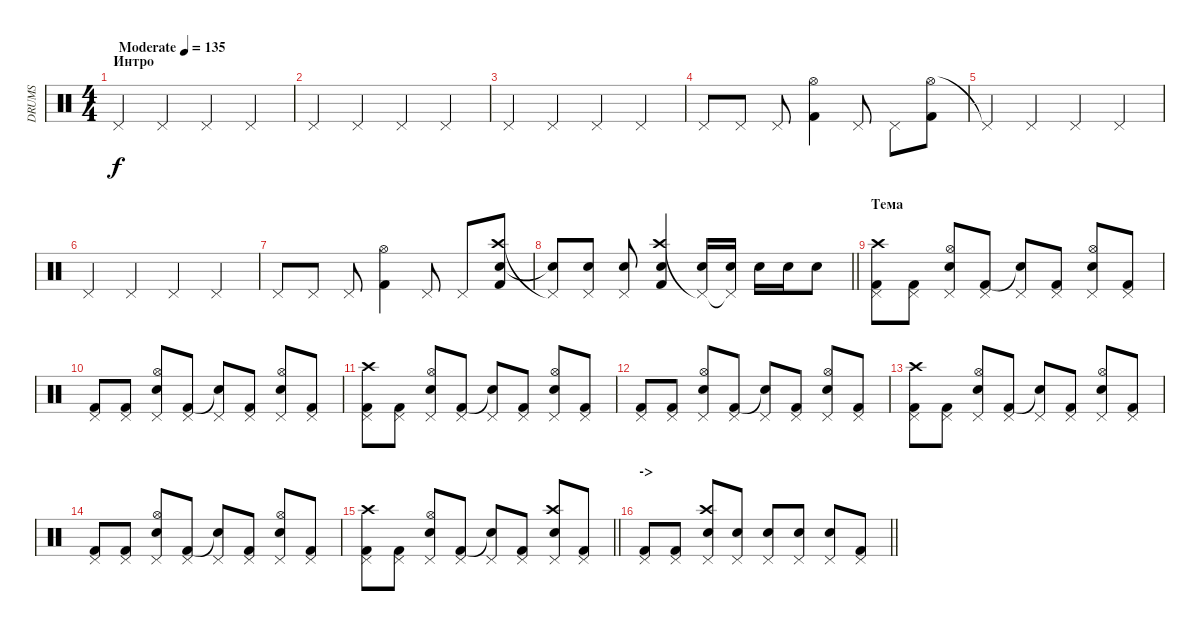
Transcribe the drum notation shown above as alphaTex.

\track ("DRUMS" "DRUMS") {instrument percussion}
\staff {score}
\articulation defaults
\ts (4 4)
\section ("" "Интро")
\tempo (135 "Moderate")
\clef neutral
\ks c "Pedal Hi-Hat (hit)".4{dy f} "Pedal Hi-Hat (hit)".4 "Pedal Hi-Hat (hit)".4 "Pedal Hi-Hat (hit)".4
|
"Pedal Hi-Hat (hit)".4 "Pedal Hi-Hat (hit)".4 "Pedal Hi-Hat (hit)".4 "Pedal Hi-Hat (hit)".4 |
"Pedal Hi-Hat (hit)".4 "Pedal Hi-Hat (hit)".4 "Pedal Hi-Hat (hit)".4 "Pedal Hi-Hat (hit)".4 |
"Pedal Hi-Hat (hit)".8 "Pedal Hi-Hat (hit)".8 "Pedal Hi-Hat (hit)".8 ("Hi-Hat (open)" "Kick (hit) 2").4 "Pedal Hi-Hat (hit)".8 "Pedal Hi-Hat (hit)".8 ("Hi-Hat (open)" "Kick (hit) 2").8 |
"Pedal Hi-Hat (hit)"{t}.4 "Pedal Hi-Hat (hit)".4 "Pedal Hi-Hat (hit)".4 "Pedal Hi-Hat (hit)".4 |
"Pedal Hi-Hat (hit)".4 "Pedal Hi-Hat (hit)".4 "Pedal Hi-Hat (hit)".4 "Pedal Hi-Hat (hit)".4 |
"Pedal Hi-Hat (hit)".8 "Pedal Hi-Hat (hit)".8 "Pedal Hi-Hat (hit)".8 ("Hi-Hat (open)" "Kick (hit) 2").4 "Pedal Hi-Hat (hit)".8 "Pedal Hi-Hat (hit)".8 ("Crash high (hit)" "Snare (hit) 2" "Kick (hit) 2").8 |
\barLineRight lightlight
("Pedal Hi-Hat (hit)"{t} "Snare (hit)"{t}).8 ("Pedal Hi-Hat (hit)" "Snare (hit) 2").8 ("Pedal Hi-Hat (hit)" "Snare (hit) 2").8 ("Crash high (hit)" "Snare (hit) 2" "Kick (hit) 2").4 ("Pedal Hi-Hat (hit)"{t} "Snare (hit) 2").16 ("Pedal Hi-Hat (hit)"{t} "Snare (hit) 2").16 "Snare (hit) 2".16 "Snare (hit) 2".16 "Snare (hit) 2".8 |
\section ("" "Тема")
("Crash high (hit)" "Pedal Hi-Hat (hit)" "Kick (hit) 2").8 ("Pedal Hi-Hat (hit)" "Kick (hit) 2").8 ("Hi-Hat (open)" "Pedal Hi-Hat (hit)" "Snare (hit) 2").8 ("Pedal Hi-Hat (hit)" "Kick (hit) 2").8 ("Pedal Hi-Hat (hit)" "Snare (hit)"{t}).8 ("Pedal Hi-Hat (hit)" "Kick (hit) 2").8 ("Hi-Hat (open)" "Pedal Hi-Hat (hit)" "Snare (hit) 2").8 ("Pedal Hi-Hat (hit)" "Kick (hit) 2").8 |
("Pedal Hi-Hat (hit)" "Kick (hit) 2").8 ("Pedal Hi-Hat (hit)" "Kick (hit) 2").8 ("Hi-Hat (open)" "Pedal Hi-Hat (hit)" "Snare (hit) 2").8 ("Pedal Hi-Hat (hit)" "Kick (hit) 2").8 ("Pedal Hi-Hat (hit)" "Snare (hit)"{t}).8 ("Pedal Hi-Hat (hit)" "Kick (hit) 2").8 ("Hi-Hat (open)" "Pedal Hi-Hat (hit)" "Snare (hit) 2").8 ("Pedal Hi-Hat (hit)" "Kick (hit) 2").8 |
("Crash high (hit)" "Pedal Hi-Hat (hit)" "Kick (hit) 2").8 ("Pedal Hi-Hat (hit)" "Kick (hit) 2").8 ("Hi-Hat (open)" "Pedal Hi-Hat (hit)" "Snare (hit) 2").8 ("Pedal Hi-Hat (hit)" "Kick (hit) 2").8 ("Pedal Hi-Hat (hit)" "Snare (hit)"{t}).8 ("Pedal Hi-Hat (hit)" "Kick (hit) 2").8 ("Hi-Hat (open)" "Pedal Hi-Hat (hit)" "Snare (hit) 2").8 ("Pedal Hi-Hat (hit)" "Kick (hit) 2").8 |
("Pedal Hi-Hat (hit)" "Kick (hit) 2").8 ("Pedal Hi-Hat (hit)" "Kick (hit) 2").8 ("Hi-Hat (open)" "Pedal Hi-Hat (hit)" "Snare (hit) 2").8 ("Pedal Hi-Hat (hit)" "Kick (hit) 2").8 ("Pedal Hi-Hat (hit)" "Snare (hit)"{t}).8 ("Pedal Hi-Hat (hit)" "Kick (hit) 2").8 ("Hi-Hat (open)" "Pedal Hi-Hat (hit)" "Snare (hit) 2").8 ("Pedal Hi-Hat (hit)" "Kick (hit) 2").8 |
("Crash high (hit)" "Pedal Hi-Hat (hit)" "Kick (hit) 2").8 ("Pedal Hi-Hat (hit)" "Kick (hit) 2").8 ("Hi-Hat (open)" "Pedal Hi-Hat (hit)" "Snare (hit) 2").8 ("Pedal Hi-Hat (hit)" "Kick (hit) 2").8 ("Pedal Hi-Hat (hit)" "Snare (hit)"{t}).8 ("Pedal Hi-Hat (hit)" "Kick (hit) 2").8 ("Hi-Hat (open)" "Pedal Hi-Hat (hit)" "Snare (hit) 2").8 ("Pedal Hi-Hat (hit)" "Kick (hit) 2").8 |
("Pedal Hi-Hat (hit)" "Kick (hit) 2").8 ("Pedal Hi-Hat (hit)" "Kick (hit) 2").8 ("Hi-Hat (open)" "Pedal Hi-Hat (hit)" "Snare (hit) 2").8 ("Pedal Hi-Hat (hit)" "Kick (hit) 2").8 ("Pedal Hi-Hat (hit)" "Snare (hit)"{t}).8 ("Pedal Hi-Hat (hit)" "Kick (hit) 2").8 ("Hi-Hat (open)" "Pedal Hi-Hat (hit)" "Snare (hit) 2").8 ("Pedal Hi-Hat (hit)" "Kick (hit) 2").8 |
\barLineRight lightlight
("Crash high (hit)" "Pedal Hi-Hat (hit)" "Kick (hit) 2").8 ("Pedal Hi-Hat (hit)" "Kick (hit) 2").8 ("Hi-Hat (open)" "Pedal Hi-Hat (hit)" "Snare (hit) 2").8 ("Pedal Hi-Hat (hit)" "Kick (hit) 2").8 ("Pedal Hi-Hat (hit)" "Snare (hit)"{t}).8 ("Pedal Hi-Hat (hit)" "Kick (hit) 2").8 ("Crash high (hit)" "Pedal Hi-Hat (hit)" "Snare (hit) 2").8 ("Pedal Hi-Hat (hit)" "Kick (hit) 2").8 |
\section ("" "->")
\barLineRight lightlight
("Pedal Hi-Hat (hit)" "Kick (hit) 2").8 ("Pedal Hi-Hat (hit)" "Kick (hit) 2").8 ("Crash high (hit)" "Pedal Hi-Hat (hit)" "Snare (hit) 2").8 ("Pedal Hi-Hat (hit)" "Snare (hit) 2").8 ("Pedal Hi-Hat (hit)" "Snare (hit) 2").8 ("Pedal Hi-Hat (hit)" "Snare (hit) 2").8 ("Pedal Hi-Hat (hit)" "Snare (hit) 2").8 ("Pedal Hi-Hat (hit)" "Kick (hit) 2").8
